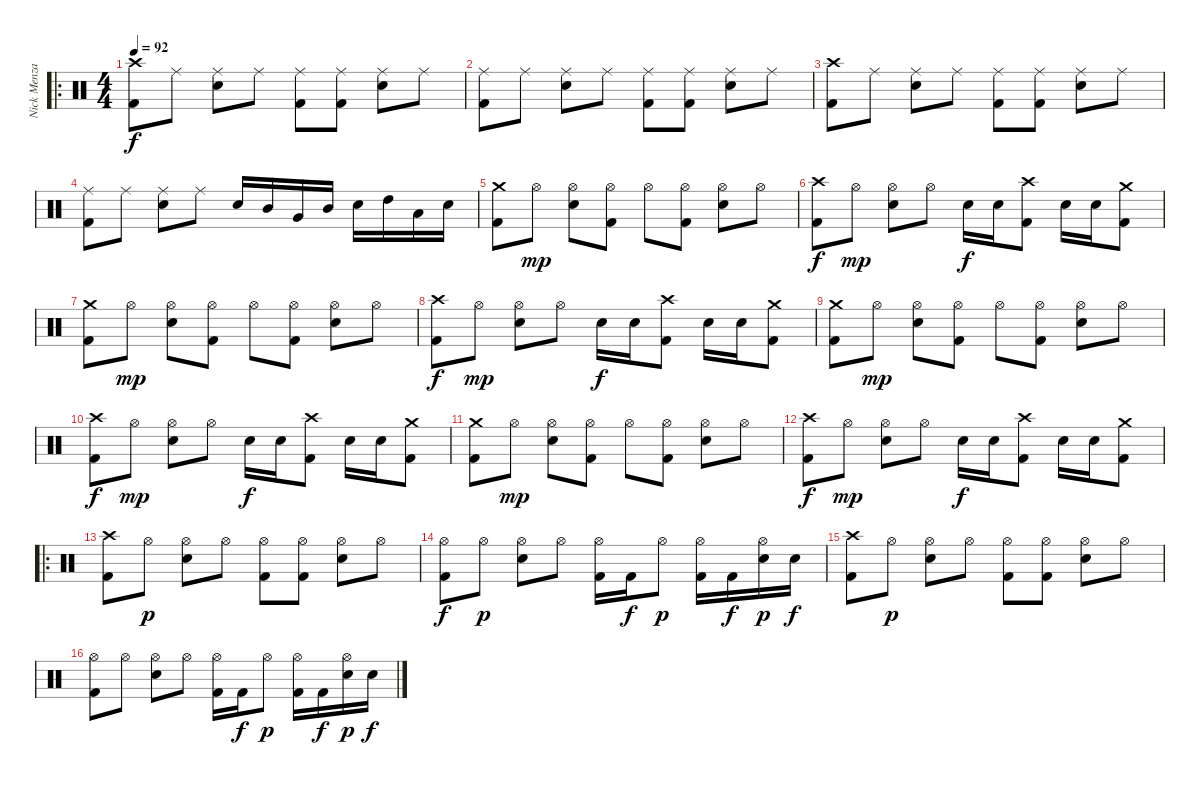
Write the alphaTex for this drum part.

\track ("Nick Menza" "Nick Menza") {instrument percussion}
\staff {score}
\articulation defaults
\ro
\ts (4 4)
\tempo 92
\clef neutral
\ks c
("Crash high (hit)" "Kick (hit) 2").8{dy f} "Ride (middle)".8 ("Ride (middle)" "Electric Snare (hit)").8 "Ride (middle)".8 ("Ride (middle)" "Kick (hit) 2").8 ("Ride (middle)" "Kick (hit) 2").8 ("Ride (middle)" "Electric Snare (hit)").8 "Ride (middle)".8 |
("Ride (middle)" "Kick (hit) 2").8 "Ride (middle)".8 ("Ride (middle)" "Electric Snare (hit)").8 "Ride (middle)".8 ("Ride (middle)" "Kick (hit) 2").8 ("Ride (middle)" "Kick (hit) 2").8 ("Ride (middle)" "Electric Snare (hit)").8 "Ride (middle)".8 |
("Crash high (hit)" "Kick (hit) 2").8 "Ride (middle)".8 ("Ride (middle)" "Electric Snare (hit)").8 "Ride (middle)".8 ("Ride (middle)" "Kick (hit) 2").8 ("Ride (middle)" "Kick (hit) 2").8 ("Ride (middle)" "Electric Snare (hit)").8 "Ride (middle)".8 |
("Ride (middle)" "Kick (hit) 2").8 "Ride (middle)".8 ("Ride (middle)" "Electric Snare (hit)").8 "Ride (middle)".8 "Electric Snare (hit)".16 "Mid Tom (hit)".16 "Very Low Tom (hit)".16 "Mid Tom (hit)".16 "Electric Snare (hit)".16 "High Tom (hit)".16 "Low Tom (hit)".16 "Electric Snare (hit)".16 |
("Crash medium (hit)" "Kick (hit) 2").8 "Hi-Hat (open)".8{dy mp} ("Hi-Hat (open)" "Electric Snare (hit)").8 ("Hi-Hat (open)" "Kick (hit) 2").8 "Hi-Hat (open)".8 ("Hi-Hat (open)" "Kick (hit) 2").8 ("Hi-Hat (open)" "Electric Snare (hit)").8 "Hi-Hat (open)".8 |
("Crash high (hit)" "Kick (hit) 2").8{dy f} "Hi-Hat (open)".8{dy mp} ("Hi-Hat (open)" "Electric Snare (hit)").8 "Hi-Hat (open)".8 "Electric Snare (hit)".16{dy f} "Electric Snare (hit)".16 ("Crash high (hit)" "Kick (hit) 2").8 "Electric Snare (hit)".16 "Electric Snare (hit)".16 ("Crash medium (hit)" "Kick (hit) 2").8 |
("Crash medium (hit)" "Kick (hit) 2").8 "Hi-Hat (open)".8{dy mp} ("Hi-Hat (open)" "Electric Snare (hit)").8 ("Hi-Hat (open)" "Kick (hit) 2").8 "Hi-Hat (open)".8 ("Hi-Hat (open)" "Kick (hit) 2").8 ("Hi-Hat (open)" "Electric Snare (hit)").8 "Hi-Hat (open)".8 |
("Crash high (hit)" "Kick (hit) 2").8{dy f} "Hi-Hat (open)".8{dy mp} ("Hi-Hat (open)" "Electric Snare (hit)").8 "Hi-Hat (open)".8 "Electric Snare (hit)".16{dy f} "Electric Snare (hit)".16 ("Crash high (hit)" "Kick (hit) 2").8 "Electric Snare (hit)".16 "Electric Snare (hit)".16 ("Crash medium (hit)" "Kick (hit) 2").8 |
("Crash medium (hit)" "Kick (hit) 2").8 "Hi-Hat (open)".8{dy mp} ("Hi-Hat (open)" "Electric Snare (hit)").8 ("Hi-Hat (open)" "Kick (hit) 2").8 "Hi-Hat (open)".8 ("Hi-Hat (open)" "Kick (hit) 2").8 ("Hi-Hat (open)" "Electric Snare (hit)").8 "Hi-Hat (open)".8 |
("Crash high (hit)" "Kick (hit) 2").8{dy f} "Hi-Hat (open)".8{dy mp} ("Hi-Hat (open)" "Electric Snare (hit)").8 "Hi-Hat (open)".8 "Electric Snare (hit)".16{dy f} "Electric Snare (hit)".16 ("Crash high (hit)" "Kick (hit) 2").8 "Electric Snare (hit)".16 "Electric Snare (hit)".16 ("Crash medium (hit)" "Kick (hit) 2").8 |
("Crash medium (hit)" "Kick (hit) 2").8 "Hi-Hat (open)".8{dy mp} ("Hi-Hat (open)" "Electric Snare (hit)").8 ("Hi-Hat (open)" "Kick (hit) 2").8 "Hi-Hat (open)".8 ("Hi-Hat (open)" "Kick (hit) 2").8 ("Hi-Hat (open)" "Electric Snare (hit)").8 "Hi-Hat (open)".8 |
("Crash high (hit)" "Kick (hit) 2").8{dy f} "Hi-Hat (open)".8{dy mp} ("Hi-Hat (open)" "Electric Snare (hit)").8 "Hi-Hat (open)".8 "Electric Snare (hit)".16{dy f} "Electric Snare (hit)".16 ("Crash high (hit)" "Kick (hit) 2").8 "Electric Snare (hit)".16 "Electric Snare (hit)".16 ("Crash medium (hit)" "Kick (hit) 2").8 |
\ro
("Crash high (hit)" "Kick (hit) 2").8 "Hi-Hat (open)".8{dy p} ("Hi-Hat (open)" "Electric Snare (hit)").8 "Hi-Hat (open)".8 ("Hi-Hat (open)" "Kick (hit) 2").8 ("Hi-Hat (open)" "Kick (hit) 2").8 ("Hi-Hat (open)" "Electric Snare (hit)").8 "Hi-Hat (open)".8 |
("Hi-Hat (open)" "Kick (hit) 2").8{dy f} "Hi-Hat (open)".8{dy p} ("Hi-Hat (open)" "Electric Snare (hit)").8 "Hi-Hat (open)".8 ("Hi-Hat (open)" "Kick (hit) 2").16 "Kick (hit) 2".16{dy f} "Hi-Hat (open)".8{dy p} ("Hi-Hat (open)" "Kick (hit) 2").16 "Kick (hit) 2".16{dy f} ("Hi-Hat (open)" "Electric Snare (hit)").16{dy p} "Electric Snare (hit)".16{dy f} |
("Crash high (hit)" "Kick (hit) 2").8 "Hi-Hat (open)".8{dy p} ("Hi-Hat (open)" "Electric Snare (hit)").8 "Hi-Hat (open)".8 ("Hi-Hat (open)" "Kick (hit) 2").8 ("Hi-Hat (open)" "Kick (hit) 2").8 ("Hi-Hat (open)" "Electric Snare (hit)").8 "Hi-Hat (open)".8 |
("Hi-Hat (open)" "Kick (hit) 2").8 "Hi-Hat (open)".8 ("Hi-Hat (open)" "Electric Snare (hit)").8 "Hi-Hat (open)".8 ("Hi-Hat (open)" "Kick (hit) 2").16 "Kick (hit) 2".16{dy f} "Hi-Hat (open)".8{dy p} ("Hi-Hat (open)" "Kick (hit) 2").16 "Kick (hit) 2".16{dy f} ("Hi-Hat (open)" "Electric Snare (hit)").16{dy p} "Electric Snare (hit)".16{dy f}
